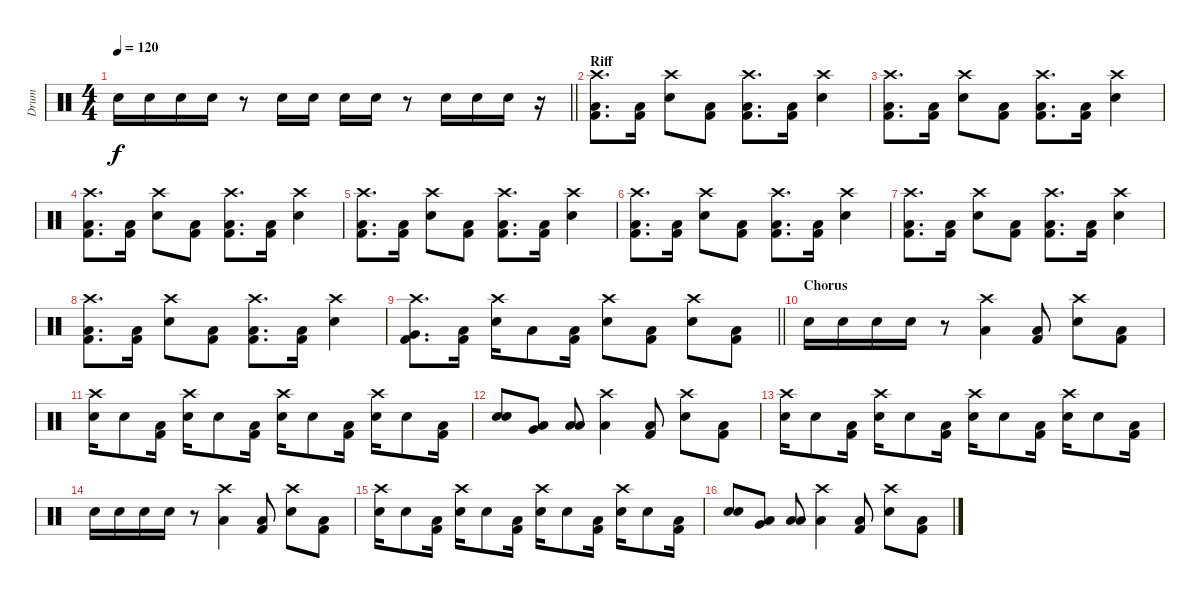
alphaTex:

\track ("Drum" "Drum") {instrument percussion}
\staff {score}
\articulation defaults
\ts (4 4)
\tempo 120
\clef neutral
\barLineRight lightlight
\ks c "Snare (hit) 2".16{dy f} "Snare (hit) 2".16 "Snare (hit) 2".16 "Snare (hit) 2".16
r.8 "Snare (hit) 2".16 "Snare (hit) 2".16 "Snare (hit) 2".16 "Snare (hit) 2".16 r.8 "Snare (hit) 2".16 "Snare (hit) 2".16 "Snare (hit) 2".16 r.16 |
\section ("" "Riff")
("Crash high (hit)" "Low Floor Tom (hit)" "Kick (hit) 2").8{d} ("Low Floor Tom (hit)" "Kick (hit) 2").16 ("Crash high (hit)" "Snare (hit) 2").8 ("Low Floor Tom (hit)" "Kick (hit) 2").8 ("Crash high (hit)" "Low Floor Tom (hit)" "Kick (hit) 2").8{d} ("Low Floor Tom (hit)" "Kick (hit) 2").16 ("Crash high (hit)" "Snare (hit) 2").4 |
("Crash high (hit)" "Low Floor Tom (hit)" "Kick (hit) 2").8{d} ("Low Floor Tom (hit)" "Kick (hit) 2").16 ("Crash high (hit)" "Snare (hit) 2").8 ("Low Floor Tom (hit)" "Kick (hit) 2").8 ("Crash high (hit)" "Low Floor Tom (hit)" "Kick (hit) 2").8{d} ("Low Floor Tom (hit)" "Kick (hit) 2").16 ("Crash high (hit)" "Snare (hit) 2").4 |
("Crash high (hit)" "Low Floor Tom (hit)" "Kick (hit) 2").8{d} ("Low Floor Tom (hit)" "Kick (hit) 2").16 ("Crash high (hit)" "Snare (hit) 2").8 ("Low Floor Tom (hit)" "Kick (hit) 2").8 ("Crash high (hit)" "Low Floor Tom (hit)" "Kick (hit) 2").8{d} ("Low Floor Tom (hit)" "Kick (hit) 2").16 ("Crash high (hit)" "Snare (hit) 2").4 |
("Crash high (hit)" "Low Floor Tom (hit)" "Kick (hit) 2").8{d} ("Low Floor Tom (hit)" "Kick (hit) 2").16 ("Crash high (hit)" "Snare (hit) 2").8 ("Low Floor Tom (hit)" "Kick (hit) 2").8 ("Crash high (hit)" "Low Floor Tom (hit)" "Kick (hit) 2").8{d} ("Low Floor Tom (hit)" "Kick (hit) 2").16 ("Crash high (hit)" "Snare (hit) 2").4 |
("Crash high (hit)" "Low Floor Tom (hit)" "Kick (hit) 2").8{d} ("Low Floor Tom (hit)" "Kick (hit) 2").16 ("Crash high (hit)" "Snare (hit) 2").8 ("Low Floor Tom (hit)" "Kick (hit) 2").8 ("Crash high (hit)" "Low Floor Tom (hit)" "Kick (hit) 2").8{d} ("Low Floor Tom (hit)" "Kick (hit) 2").16 ("Crash high (hit)" "Snare (hit) 2").4 |
("Crash high (hit)" "Low Floor Tom (hit)" "Kick (hit) 2").8{d} ("Low Floor Tom (hit)" "Kick (hit) 2").16 ("Crash high (hit)" "Snare (hit) 2").8 ("Low Floor Tom (hit)" "Kick (hit) 2").8 ("Crash high (hit)" "Low Floor Tom (hit)" "Kick (hit) 2").8{d} ("Low Floor Tom (hit)" "Kick (hit) 2").16 ("Crash high (hit)" "Snare (hit) 2").4 |
("Crash high (hit)" "Low Floor Tom (hit)" "Kick (hit) 2").8{d} ("Low Floor Tom (hit)" "Kick (hit) 2").16 ("Crash high (hit)" "Snare (hit) 2").8 ("Low Floor Tom (hit)" "Kick (hit) 2").8 ("Crash high (hit)" "Low Floor Tom (hit)" "Kick (hit) 2").8{d} ("Low Floor Tom (hit)" "Kick (hit) 2").16 ("Crash high (hit)" "Snare (hit) 2").4 |
\barLineRight lightlight
("Crash high (hit)" "Very Low Tom (hit)" "Kick (hit) 2").8{d} ("Low Floor Tom (hit)" "Kick (hit) 2").16 ("Crash high (hit)" "Snare (hit) 2").16 "Low Floor Tom (hit)".8 ("Low Floor Tom (hit)" "Kick (hit) 2").16 ("Crash high (hit)" "Snare (hit) 2").8 ("Low Floor Tom (hit)" "Kick (hit) 2").8 ("Crash high (hit)" "Snare (hit) 2").8 ("Low Floor Tom (hit)" "Kick (hit) 2").8 |
\section ("" "Chorus")
"Snare (hit) 2".16 "Snare (hit) 2".16 "Snare (hit) 2".16 "Snare (hit) 2".16 r.8 ("Crash high (hit)" "Low Floor Tom (hit)").4 ("Low Floor Tom (hit)" "Kick (hit) 2").8 ("Crash high (hit)" "Snare (hit) 2").8 ("Low Floor Tom (hit)" "Kick (hit) 2").8 |
("Crash high (hit)" "Snare (hit) 2").16 "Snare (hit) 2".8 ("Low Floor Tom (hit)" "Kick (hit) 2").16 ("Crash high (hit)" "Snare (hit) 2").16 "Snare (hit) 2".8 ("Low Floor Tom (hit)" "Kick (hit) 2").16 ("Crash high (hit)" "Snare (hit) 2").16 "Snare (hit) 2".8 ("Low Floor Tom (hit)" "Kick (hit) 2").16 ("Crash high (hit)" "Snare (hit) 2").16 "Snare (hit) 2".8 ("Low Floor Tom (hit)" "Kick (hit) 2").16 |
("Snare (hit) 2" "Snare (hit) 2").8 ("Very Low Tom (hit)" "Low Floor Tom (hit)").8 ("Low Floor Tom (hit)" "Low Floor Tom (hit)").8 ("Crash high (hit)" "Low Floor Tom (hit)").4 ("Low Floor Tom (hit)" "Kick (hit) 2").8 ("Crash high (hit)" "Snare (hit) 2").8 ("Low Floor Tom (hit)" "Kick (hit) 2").8 |
("Crash high (hit)" "Snare (hit) 2").16 "Snare (hit) 2".8 ("Low Floor Tom (hit)" "Kick (hit) 2").16 ("Crash high (hit)" "Snare (hit) 2").16 "Snare (hit) 2".8 ("Low Floor Tom (hit)" "Kick (hit) 2").16 ("Crash high (hit)" "Snare (hit) 2").16 "Snare (hit) 2".8 ("Low Floor Tom (hit)" "Kick (hit) 2").16 ("Crash high (hit)" "Snare (hit) 2").16 "Snare (hit) 2".8 ("Low Floor Tom (hit)" "Kick (hit) 2").16 |
"Snare (hit) 2".16 "Snare (hit) 2".16 "Snare (hit) 2".16 "Snare (hit) 2".16 r.8 ("Crash high (hit)" "Low Floor Tom (hit)").4 ("Low Floor Tom (hit)" "Kick (hit) 2").8 ("Crash high (hit)" "Snare (hit) 2").8 ("Low Floor Tom (hit)" "Kick (hit) 2").8 |
("Crash high (hit)" "Snare (hit) 2").16 "Snare (hit) 2".8 ("Low Floor Tom (hit)" "Kick (hit) 2").16 ("Crash high (hit)" "Snare (hit) 2").16 "Snare (hit) 2".8 ("Low Floor Tom (hit)" "Kick (hit) 2").16 ("Crash high (hit)" "Snare (hit) 2").16 "Snare (hit) 2".8 ("Low Floor Tom (hit)" "Kick (hit) 2").16 ("Crash high (hit)" "Snare (hit) 2").16 "Snare (hit) 2".8 ("Low Floor Tom (hit)" "Kick (hit) 2").16 |
("Snare (hit) 2" "Snare (hit) 2").8 ("Very Low Tom (hit)" "Low Floor Tom (hit)").8 ("Low Floor Tom (hit)" "Low Floor Tom (hit)").8 ("Crash high (hit)" "Low Floor Tom (hit)").4 ("Low Floor Tom (hit)" "Kick (hit) 2").8 ("Crash high (hit)" "Snare (hit) 2").8 ("Low Floor Tom (hit)" "Kick (hit) 2").8
